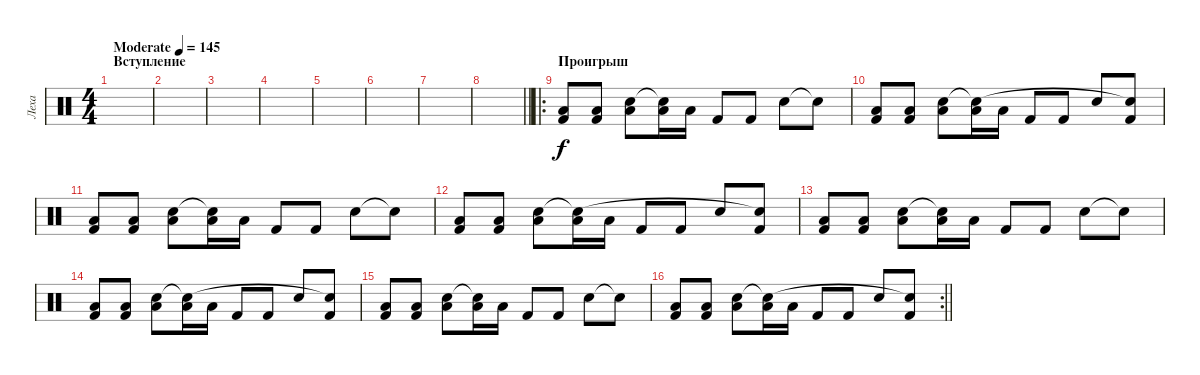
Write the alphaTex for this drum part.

\track ("Леха" "Леха") {instrument percussion}
\staff {score}
\articulation defaults
\ts (4 4)
\section ("" "Вступление")
\tempo (145 "Moderate")
\clef neutral
\ks c
|
|
|
|
|
|
|
\barLineRight lightlight
|
\ro
\section ("" "Проигрыш")
("Kick (hit) 2" "Low Floor Tom (hit)").8 ("Kick (hit) 2" "Low Floor Tom (hit)").8 ("Low Floor Tom (hit)" "Electric Snare (hit)").8 ("Low Floor Tom (hit)" "Snare (hit)"{t}).16 "Low Floor Tom (hit)".16 "Kick (hit) 2".8 "Kick (hit) 2".8 "Electric Snare (hit)".8 "Snare (hit)"{t}.8 |
("Kick (hit) 2" "Low Floor Tom (hit)").8 ("Kick (hit) 2" "Low Floor Tom (hit)").8 ("Low Floor Tom (hit)" "Electric Snare (hit)").8 ("Low Floor Tom (hit)" "Snare (hit)"{t}).16 "Low Floor Tom (hit)".16 "Kick (hit) 2".8 "Kick (hit) 2".8 "Electric Snare (hit)".8 ("Kick (hit) 2" "Snare (hit)"{t}).8 |
("Kick (hit) 2" "Low Floor Tom (hit)").8 ("Kick (hit) 2" "Low Floor Tom (hit)").8 ("Low Floor Tom (hit)" "Electric Snare (hit)").8 ("Low Floor Tom (hit)" "Snare (hit)"{t}).16 "Low Floor Tom (hit)".16 "Kick (hit) 2".8 "Kick (hit) 2".8 "Electric Snare (hit)".8 "Snare (hit)"{t}.8 |
("Kick (hit) 2" "Low Floor Tom (hit)").8 ("Kick (hit) 2" "Low Floor Tom (hit)").8 ("Low Floor Tom (hit)" "Electric Snare (hit)").8 ("Low Floor Tom (hit)" "Snare (hit)"{t}).16 "Low Floor Tom (hit)".16 "Kick (hit) 2".8 "Kick (hit) 2".8 "Electric Snare (hit)".8 ("Kick (hit) 2" "Snare (hit)"{t}).8 |
("Kick (hit) 2" "Low Floor Tom (hit)").8 ("Kick (hit) 2" "Low Floor Tom (hit)").8 ("Low Floor Tom (hit)" "Electric Snare (hit)").8 ("Low Floor Tom (hit)" "Snare (hit)"{t}).16 "Low Floor Tom (hit)".16 "Kick (hit) 2".8 "Kick (hit) 2".8 "Electric Snare (hit)".8 "Snare (hit)"{t}.8 |
("Kick (hit) 2" "Low Floor Tom (hit)").8 ("Kick (hit) 2" "Low Floor Tom (hit)").8 ("Low Floor Tom (hit)" "Electric Snare (hit)").8 ("Low Floor Tom (hit)" "Snare (hit)"{t}).16 "Low Floor Tom (hit)".16 "Kick (hit) 2".8 "Kick (hit) 2".8 "Electric Snare (hit)".8 ("Kick (hit) 2" "Snare (hit)"{t}).8 |
("Kick (hit) 2" "Low Floor Tom (hit)").8 ("Kick (hit) 2" "Low Floor Tom (hit)").8 ("Low Floor Tom (hit)" "Electric Snare (hit)").8 ("Low Floor Tom (hit)" "Snare (hit)"{t}).16 "Low Floor Tom (hit)".16 "Kick (hit) 2".8 "Kick (hit) 2".8 "Electric Snare (hit)".8 "Snare (hit)"{t}.8 |
\rc 2
\barLineRight lightlight
("Kick (hit) 2" "Low Floor Tom (hit)").8 ("Kick (hit) 2" "Low Floor Tom (hit)").8 ("Low Floor Tom (hit)" "Electric Snare (hit)").8 ("Low Floor Tom (hit)" "Snare (hit)"{t}).16 "Low Floor Tom (hit)".16 "Kick (hit) 2".8 "Kick (hit) 2".8 "Electric Snare (hit)".8 ("Kick (hit) 2" "Snare (hit)"{t}).8
